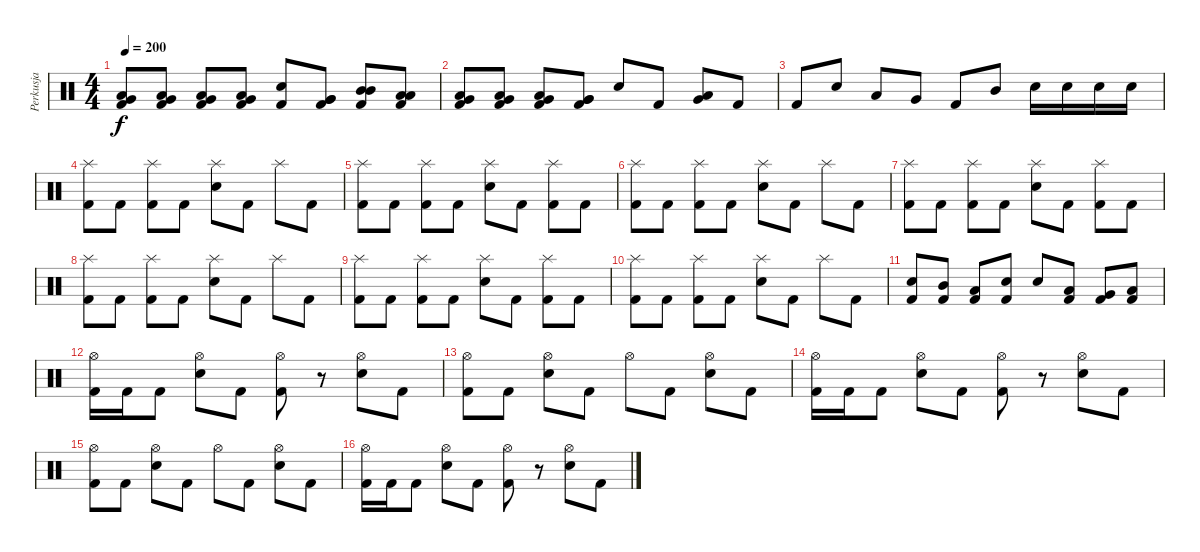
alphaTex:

\track ("Perkusja" "Perkusja") {instrument percussion}
\staff {score}
\articulation defaults
\ts (4 4)
\tempo 200
\clef neutral
\ks c
("Very Low Tom (hit)" "Low Floor Tom (hit)" "Kick (hit) 2").8{dy f} ("Very Low Tom (hit)" "Low Floor Tom (hit)" "Kick (hit) 2").8 ("Very Low Tom (hit)" "Low Floor Tom (hit)" "Kick (hit) 2").8 ("Very Low Tom (hit)" "Low Floor Tom (hit)" "Kick (hit) 2").8 ("Snare (hit) 2" "Kick (hit) 2").8 ("Very Low Tom (hit)" "Very Low Tom (hit)" "Kick (hit) 2").8 ("Mid Tom (hit)" "Mid Tom (hit)" "Kick (hit) 2").8 ("Low Tom (hit)" "Low Tom (hit)" "Kick (hit) 2").8 |
("Very Low Tom (hit)" "Low Tom (hit)" "Kick (hit) 2").8 ("Very Low Tom (hit)" "Low Tom (hit)" "Kick (hit) 2").8 ("Very Low Tom (hit)" "Low Tom (hit)" "Kick (hit) 2").8 ("Very Low Tom (hit)" "Very Low Tom (hit)" "Kick (hit) 2").8 "Snare (hit) 2".8 "Kick (hit) 2".8 ("Low Tom (hit)" "Very Low Tom (hit)").8 "Kick (hit) 2".8 |
"Kick (hit) 2".8 "Snare (hit) 2".8 "Low Tom (hit)".8 "Very Low Tom (hit)".8 "Kick (hit) 2".8 "Mid Tom (hit)".8 "Snare (hit) 2".16 "Snare (hit) 2".16 "Snare (hit) 2".16 "Snare (hit) 2".16 |
("Splash (hit)" "Kick (hit) 2").8 "Kick (hit) 2".8 ("Splash (hit)" "Kick (hit) 2").8 "Kick (hit) 2".8 ("Splash (hit)" "Snare (hit) 2").8 "Kick (hit) 2".8 "Splash (hit)".8 "Kick (hit) 2".8 |
("Splash (hit)" "Kick (hit) 2").8 "Kick (hit) 2".8 ("Splash (hit)" "Kick (hit) 2").8 "Kick (hit) 2".8 ("Splash (hit)" "Snare (hit) 2").8 "Kick (hit) 2".8 ("Splash (hit)" "Kick (hit) 2").8 "Kick (hit) 2".8 |
("Splash (hit)" "Kick (hit) 2").8 "Kick (hit) 2".8 ("Splash (hit)" "Kick (hit) 2").8 "Kick (hit) 2".8 ("Splash (hit)" "Snare (hit) 2").8 "Kick (hit) 2".8 "Splash (hit)".8 "Kick (hit) 2".8 |
("Splash (hit)" "Kick (hit) 2").8 "Kick (hit) 2".8 ("Splash (hit)" "Kick (hit) 2").8 "Kick (hit) 2".8 ("Splash (hit)" "Snare (hit) 2").8 "Kick (hit) 2".8 ("Splash (hit)" "Kick (hit) 2").8 "Kick (hit) 2".8 |
("Splash (hit)" "Kick (hit) 2").8 "Kick (hit) 2".8 ("Splash (hit)" "Kick (hit) 2").8 "Kick (hit) 2".8 ("Splash (hit)" "Snare (hit) 2").8 "Kick (hit) 2".8 "Splash (hit)".8 "Kick (hit) 2".8 |
("Splash (hit)" "Kick (hit) 2").8 "Kick (hit) 2".8 ("Splash (hit)" "Kick (hit) 2").8 "Kick (hit) 2".8 ("Splash (hit)" "Snare (hit) 2").8 "Kick (hit) 2".8 ("Splash (hit)" "Kick (hit) 2").8 "Kick (hit) 2".8 |
("Splash (hit)" "Kick (hit) 2").8 "Kick (hit) 2".8 ("Splash (hit)" "Kick (hit) 2").8 "Kick (hit) 2".8 ("Splash (hit)" "Snare (hit) 2").8 "Kick (hit) 2".8 "Splash (hit)".8 "Kick (hit) 2".8 |
("Snare (hit) 2" "Kick (hit) 2").8 ("Mid Tom (hit)" "Kick (hit) 2").8 ("Low Tom (hit)" "Kick (hit) 2").8 ("Snare (hit) 2" "Kick (hit) 2").8 "Snare (hit) 2".8 ("Low Tom (hit)" "Kick (hit) 2").8 ("Very Low Tom (hit)" "Kick (hit) 2").8 ("Low Floor Tom (hit)" "Kick (hit) 2").8 |
("Hi-Hat (open)" "Kick (hit) 2").16 "Kick (hit) 2".16 "Kick (hit) 2".8 ("Hi-Hat (open)" "Snare (hit) 2").8 "Kick (hit) 2".8 ("Hi-Hat (open)" "Kick (hit) 2").8 r.8 ("Hi-Hat (open)" "Snare (hit) 2").8 "Kick (hit) 2".8 |
("Hi-Hat (open)" "Kick (hit) 2").8 "Kick (hit) 2".8 ("Hi-Hat (open)" "Snare (hit) 2").8 "Kick (hit) 2".8 "Hi-Hat (open)".8 "Kick (hit) 2".8 ("Hi-Hat (open)" "Snare (hit) 2").8 "Kick (hit) 2".8 |
("Hi-Hat (open)" "Kick (hit) 2").16 "Kick (hit) 2".16 "Kick (hit) 2".8 ("Hi-Hat (open)" "Snare (hit) 2").8 "Kick (hit) 2".8 ("Hi-Hat (open)" "Kick (hit) 2").8 r.8 ("Hi-Hat (open)" "Snare (hit) 2").8 "Kick (hit) 2".8 |
("Hi-Hat (open)" "Kick (hit) 2").8 "Kick (hit) 2".8 ("Hi-Hat (open)" "Snare (hit) 2").8 "Kick (hit) 2".8 "Hi-Hat (open)".8 "Kick (hit) 2".8 ("Hi-Hat (open)" "Snare (hit) 2").8 "Kick (hit) 2".8 |
("Hi-Hat (open)" "Kick (hit) 2").16 "Kick (hit) 2".16 "Kick (hit) 2".8 ("Hi-Hat (open)" "Snare (hit) 2").8 "Kick (hit) 2".8 ("Hi-Hat (open)" "Kick (hit) 2").8 r.8 ("Hi-Hat (open)" "Snare (hit) 2").8 "Kick (hit) 2".8
